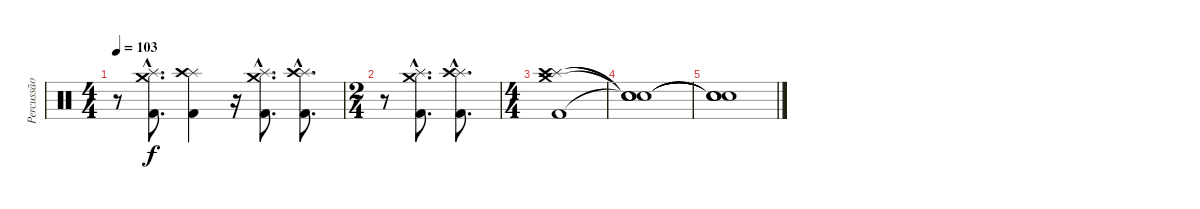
\track ("Percussão" "Percussão") {instrument percussion}
\staff {score}
\articulation defaults
\ts (4 4)
\tempo 103
\clef neutral
\ks c
r.8{dy f} ("Crash medium (hit)"{hac} "Splash (hit)"{hac} "Kick (hit) 2"{hac}).8{d} ("Splash (hit)" "Crash high (hit)" "Kick (hit) 2").4 r.16 ("Crash medium (hit)"{hac} "Splash (hit)"{hac} "Kick (hit) 2"{hac}).8{d} ("Splash (hit)"{hac} "Crash high (hit)"{hac} "Kick (hit) 2"{hac}).8{d} |
\ts (2 4)
r.8 ("Crash medium (hit)"{hac} "Splash (hit)"{hac} "Kick (hit) 2"{hac}).8{d} ("Splash (hit)"{hac} "Crash high (hit)"{hac} "Kick (hit) 2"{hac}).8{d} |
\ts (4 4)
("Crash medium (hit)" "Splash (hit)" "Crash high (hit)" "Kick (hit) 2").1 |
("Snare (hit)"{t} "Snare (hit)"{t} "Snare (hit)"{t} "Snare (hit)"{t}).1 |
("Snare (hit)"{t} "Snare (hit)"{t} "Snare (hit)"{t} "Snare (hit)"{t}).1
